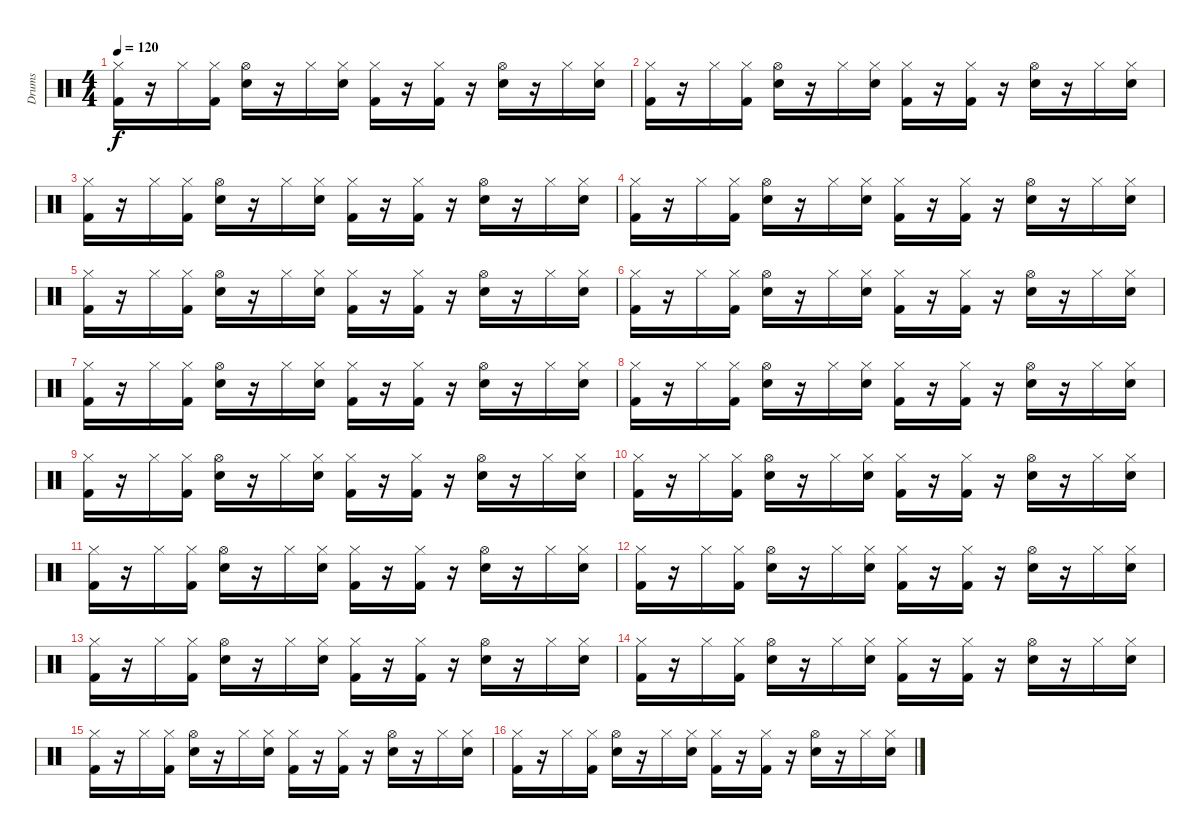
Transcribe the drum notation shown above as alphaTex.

\track ("Drums" "Drums") {instrument percussion}
\staff {score}
\articulation defaults
\ts (4 4)
\tempo 120
\clef neutral
\ks c
("Hi-Hat (closed)" "Kick (hit) 2").16{dy f} r.16 "Hi-Hat (closed)".16 ("Hi-Hat (closed)" "Kick (hit) 2").16 ("Hi-Hat (open)" "Snare (hit) 2").16 r.16 "Hi-Hat (closed)".16 ("Hi-Hat (closed)" "Snare (hit) 2").16 ("Hi-Hat (closed)" "Kick (hit) 2").16 r.16 ("Hi-Hat (closed)" "Kick (hit) 2").16 r.16 ("Hi-Hat (open)" "Snare (hit) 2").16 r.16 "Hi-Hat (closed)".16 ("Hi-Hat (closed)" "Snare (hit) 2").16 |
("Hi-Hat (closed)" "Kick (hit) 2").16 r.16 "Hi-Hat (closed)".16 ("Hi-Hat (closed)" "Kick (hit) 2").16 ("Hi-Hat (open)" "Snare (hit) 2").16 r.16 "Hi-Hat (closed)".16 ("Hi-Hat (closed)" "Snare (hit) 2").16 ("Hi-Hat (closed)" "Kick (hit) 2").16 r.16 ("Hi-Hat (closed)" "Kick (hit) 2").16 r.16 ("Hi-Hat (open)" "Snare (hit) 2").16 r.16 "Hi-Hat (closed)".16 ("Hi-Hat (closed)" "Snare (hit) 2").16 |
("Hi-Hat (closed)" "Kick (hit) 2").16 r.16 "Hi-Hat (closed)".16 ("Hi-Hat (closed)" "Kick (hit) 2").16 ("Hi-Hat (open)" "Snare (hit) 2").16 r.16 "Hi-Hat (closed)".16 ("Hi-Hat (closed)" "Snare (hit) 2").16 ("Hi-Hat (closed)" "Kick (hit) 2").16 r.16 ("Hi-Hat (closed)" "Kick (hit) 2").16 r.16 ("Hi-Hat (open)" "Snare (hit) 2").16 r.16 "Hi-Hat (closed)".16 ("Hi-Hat (closed)" "Snare (hit) 2").16 |
("Hi-Hat (closed)" "Kick (hit) 2").16 r.16 "Hi-Hat (closed)".16 ("Hi-Hat (closed)" "Kick (hit) 2").16 ("Hi-Hat (open)" "Snare (hit) 2").16 r.16 "Hi-Hat (closed)".16 ("Hi-Hat (closed)" "Snare (hit) 2").16 ("Hi-Hat (closed)" "Kick (hit) 2").16 r.16 ("Hi-Hat (closed)" "Kick (hit) 2").16 r.16 ("Hi-Hat (open)" "Snare (hit) 2").16 r.16 "Hi-Hat (closed)".16 ("Hi-Hat (closed)" "Snare (hit) 2").16 |
("Hi-Hat (closed)" "Kick (hit) 2").16 r.16 "Hi-Hat (closed)".16 ("Hi-Hat (closed)" "Kick (hit) 2").16 ("Hi-Hat (open)" "Snare (hit) 2").16 r.16 "Hi-Hat (closed)".16 ("Hi-Hat (closed)" "Snare (hit) 2").16 ("Hi-Hat (closed)" "Kick (hit) 2").16 r.16 ("Hi-Hat (closed)" "Kick (hit) 2").16 r.16 ("Hi-Hat (open)" "Snare (hit) 2").16 r.16 "Hi-Hat (closed)".16 ("Hi-Hat (closed)" "Snare (hit) 2").16 |
("Hi-Hat (closed)" "Kick (hit) 2").16 r.16 "Hi-Hat (closed)".16 ("Hi-Hat (closed)" "Kick (hit) 2").16 ("Hi-Hat (open)" "Snare (hit) 2").16 r.16 "Hi-Hat (closed)".16 ("Hi-Hat (closed)" "Snare (hit) 2").16 ("Hi-Hat (closed)" "Kick (hit) 2").16 r.16 ("Hi-Hat (closed)" "Kick (hit) 2").16 r.16 ("Hi-Hat (open)" "Snare (hit) 2").16 r.16 "Hi-Hat (closed)".16 ("Hi-Hat (closed)" "Snare (hit) 2").16 |
("Hi-Hat (closed)" "Kick (hit) 2").16 r.16 "Hi-Hat (closed)".16 ("Hi-Hat (closed)" "Kick (hit) 2").16 ("Hi-Hat (open)" "Snare (hit) 2").16 r.16 "Hi-Hat (closed)".16 ("Hi-Hat (closed)" "Snare (hit) 2").16 ("Hi-Hat (closed)" "Kick (hit) 2").16 r.16 ("Hi-Hat (closed)" "Kick (hit) 2").16 r.16 ("Hi-Hat (open)" "Snare (hit) 2").16 r.16 "Hi-Hat (closed)".16 ("Hi-Hat (closed)" "Snare (hit) 2").16 |
("Hi-Hat (closed)" "Kick (hit) 2").16 r.16 "Hi-Hat (closed)".16 ("Hi-Hat (closed)" "Kick (hit) 2").16 ("Hi-Hat (open)" "Snare (hit) 2").16 r.16 "Hi-Hat (closed)".16 ("Hi-Hat (closed)" "Snare (hit) 2").16 ("Hi-Hat (closed)" "Kick (hit) 2").16 r.16 ("Hi-Hat (closed)" "Kick (hit) 2").16 r.16 ("Hi-Hat (open)" "Snare (hit) 2").16 r.16 "Hi-Hat (closed)".16 ("Hi-Hat (closed)" "Snare (hit) 2").16 |
("Hi-Hat (closed)" "Kick (hit) 2").16 r.16 "Hi-Hat (closed)".16 ("Hi-Hat (closed)" "Kick (hit) 2").16 ("Hi-Hat (open)" "Snare (hit) 2").16 r.16 "Hi-Hat (closed)".16 ("Hi-Hat (closed)" "Snare (hit) 2").16 ("Hi-Hat (closed)" "Kick (hit) 2").16 r.16 ("Hi-Hat (closed)" "Kick (hit) 2").16 r.16 ("Hi-Hat (open)" "Snare (hit) 2").16 r.16 "Hi-Hat (closed)".16 ("Hi-Hat (closed)" "Snare (hit) 2").16 |
("Hi-Hat (closed)" "Kick (hit) 2").16 r.16 "Hi-Hat (closed)".16 ("Hi-Hat (closed)" "Kick (hit) 2").16 ("Hi-Hat (open)" "Snare (hit) 2").16 r.16 "Hi-Hat (closed)".16 ("Hi-Hat (closed)" "Snare (hit) 2").16 ("Hi-Hat (closed)" "Kick (hit) 2").16 r.16 ("Hi-Hat (closed)" "Kick (hit) 2").16 r.16 ("Hi-Hat (open)" "Snare (hit) 2").16 r.16 "Hi-Hat (closed)".16 ("Hi-Hat (closed)" "Snare (hit) 2").16 |
("Hi-Hat (closed)" "Kick (hit) 2").16 r.16 "Hi-Hat (closed)".16 ("Hi-Hat (closed)" "Kick (hit) 2").16 ("Hi-Hat (open)" "Snare (hit) 2").16 r.16 "Hi-Hat (closed)".16 ("Hi-Hat (closed)" "Snare (hit) 2").16 ("Hi-Hat (closed)" "Kick (hit) 2").16 r.16 ("Hi-Hat (closed)" "Kick (hit) 2").16 r.16 ("Hi-Hat (open)" "Snare (hit) 2").16 r.16 "Hi-Hat (closed)".16 ("Hi-Hat (closed)" "Snare (hit) 2").16 |
("Hi-Hat (closed)" "Kick (hit) 2").16 r.16 "Hi-Hat (closed)".16 ("Hi-Hat (closed)" "Kick (hit) 2").16 ("Hi-Hat (open)" "Snare (hit) 2").16 r.16 "Hi-Hat (closed)".16 ("Hi-Hat (closed)" "Snare (hit) 2").16 ("Hi-Hat (closed)" "Kick (hit) 2").16 r.16 ("Hi-Hat (closed)" "Kick (hit) 2").16 r.16 ("Hi-Hat (open)" "Snare (hit) 2").16 r.16 "Hi-Hat (closed)".16 ("Hi-Hat (closed)" "Snare (hit) 2").16 |
("Hi-Hat (closed)" "Kick (hit) 2").16 r.16 "Hi-Hat (closed)".16 ("Hi-Hat (closed)" "Kick (hit) 2").16 ("Hi-Hat (open)" "Snare (hit) 2").16 r.16 "Hi-Hat (closed)".16 ("Hi-Hat (closed)" "Snare (hit) 2").16 ("Hi-Hat (closed)" "Kick (hit) 2").16 r.16 ("Hi-Hat (closed)" "Kick (hit) 2").16 r.16 ("Hi-Hat (open)" "Snare (hit) 2").16 r.16 "Hi-Hat (closed)".16 ("Hi-Hat (closed)" "Snare (hit) 2").16 |
("Hi-Hat (closed)" "Kick (hit) 2").16 r.16 "Hi-Hat (closed)".16 ("Hi-Hat (closed)" "Kick (hit) 2").16 ("Hi-Hat (open)" "Snare (hit) 2").16 r.16 "Hi-Hat (closed)".16 ("Hi-Hat (closed)" "Snare (hit) 2").16 ("Hi-Hat (closed)" "Kick (hit) 2").16 r.16 ("Hi-Hat (closed)" "Kick (hit) 2").16 r.16 ("Hi-Hat (open)" "Snare (hit) 2").16 r.16 "Hi-Hat (closed)".16 ("Hi-Hat (closed)" "Snare (hit) 2").16 |
("Hi-Hat (closed)" "Kick (hit) 2").16 r.16 "Hi-Hat (closed)".16 ("Hi-Hat (closed)" "Kick (hit) 2").16 ("Hi-Hat (open)" "Snare (hit) 2").16 r.16 "Hi-Hat (closed)".16 ("Hi-Hat (closed)" "Snare (hit) 2").16 ("Hi-Hat (closed)" "Kick (hit) 2").16 r.16 ("Hi-Hat (closed)" "Kick (hit) 2").16 r.16 ("Hi-Hat (open)" "Snare (hit) 2").16 r.16 "Hi-Hat (closed)".16 ("Hi-Hat (closed)" "Snare (hit) 2").16 |
("Hi-Hat (closed)" "Kick (hit) 2").16 r.16 "Hi-Hat (closed)".16 ("Hi-Hat (closed)" "Kick (hit) 2").16 ("Hi-Hat (open)" "Snare (hit) 2").16 r.16 "Hi-Hat (closed)".16 ("Hi-Hat (closed)" "Snare (hit) 2").16 ("Hi-Hat (closed)" "Kick (hit) 2").16 r.16 ("Hi-Hat (closed)" "Kick (hit) 2").16 r.16 ("Hi-Hat (open)" "Snare (hit) 2").16 r.16 "Hi-Hat (closed)".16 ("Hi-Hat (closed)" "Snare (hit) 2").16
